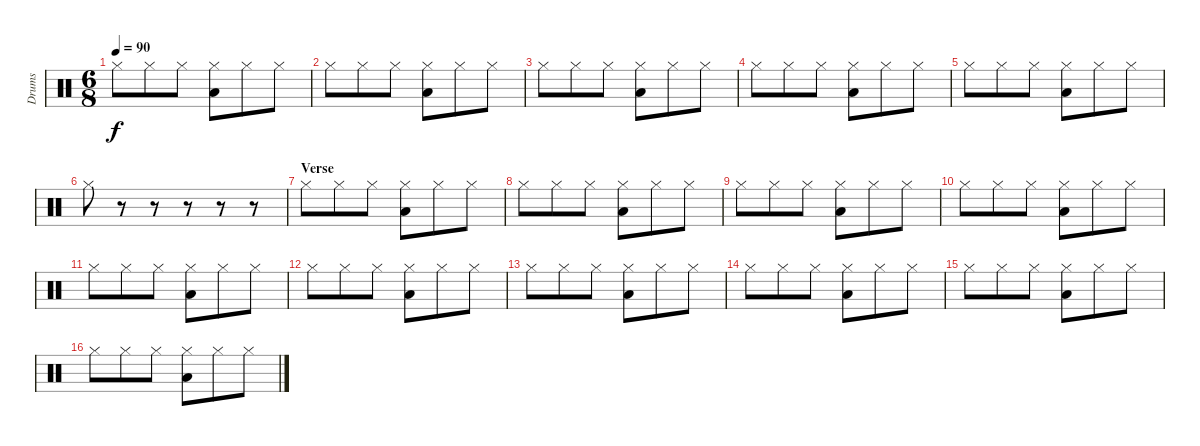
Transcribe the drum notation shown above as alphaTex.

\track ("Drums" "Drums") {instrument percussion}
\staff {score}
\articulation defaults
\ts (6 8)
\tempo 90
\clef neutral
\ks c "Hi-Hat (closed)".8{dy f} "Hi-Hat (closed)".8 "Hi-Hat (closed)".8
("Hi-Hat (closed)" "Low Floor Tom (hit)").8 "Hi-Hat (closed)".8 "Hi-Hat (closed)".8 |
"Hi-Hat (closed)".8 "Hi-Hat (closed)".8 "Hi-Hat (closed)".8 ("Hi-Hat (closed)" "Low Floor Tom (hit)").8 "Hi-Hat (closed)".8 "Hi-Hat (closed)".8 |
"Hi-Hat (closed)".8 "Hi-Hat (closed)".8 "Hi-Hat (closed)".8 ("Hi-Hat (closed)" "Low Floor Tom (hit)").8 "Hi-Hat (closed)".8 "Hi-Hat (closed)".8 |
"Hi-Hat (closed)".8 "Hi-Hat (closed)".8 "Hi-Hat (closed)".8 ("Hi-Hat (closed)" "Low Floor Tom (hit)").8 "Hi-Hat (closed)".8 "Hi-Hat (closed)".8 |
"Hi-Hat (closed)".8 "Hi-Hat (closed)".8 "Hi-Hat (closed)".8 ("Hi-Hat (closed)" "Low Floor Tom (hit)").8 "Hi-Hat (closed)".8 "Hi-Hat (closed)".8 |
"Hi-Hat (closed)".8 r.8 r.8 r.8 r.8 r.8 |
\section ("" "Verse")
"Hi-Hat (closed)".8 "Hi-Hat (closed)".8 "Hi-Hat (closed)".8 ("Hi-Hat (closed)" "Low Floor Tom (hit)").8 "Hi-Hat (closed)".8 "Hi-Hat (closed)".8 |
"Hi-Hat (closed)".8 "Hi-Hat (closed)".8 "Hi-Hat (closed)".8 ("Hi-Hat (closed)" "Low Floor Tom (hit)").8 "Hi-Hat (closed)".8 "Hi-Hat (closed)".8 |
"Hi-Hat (closed)".8 "Hi-Hat (closed)".8 "Hi-Hat (closed)".8 ("Hi-Hat (closed)" "Low Floor Tom (hit)").8 "Hi-Hat (closed)".8 "Hi-Hat (closed)".8 |
"Hi-Hat (closed)".8 "Hi-Hat (closed)".8 "Hi-Hat (closed)".8 ("Hi-Hat (closed)" "Low Floor Tom (hit)").8 "Hi-Hat (closed)".8 "Hi-Hat (closed)".8 |
"Hi-Hat (closed)".8 "Hi-Hat (closed)".8 "Hi-Hat (closed)".8 ("Hi-Hat (closed)" "Low Floor Tom (hit)").8 "Hi-Hat (closed)".8 "Hi-Hat (closed)".8 |
"Hi-Hat (closed)".8 "Hi-Hat (closed)".8 "Hi-Hat (closed)".8 ("Hi-Hat (closed)" "Low Floor Tom (hit)").8 "Hi-Hat (closed)".8 "Hi-Hat (closed)".8 |
"Hi-Hat (closed)".8 "Hi-Hat (closed)".8 "Hi-Hat (closed)".8 ("Hi-Hat (closed)" "Low Floor Tom (hit)").8 "Hi-Hat (closed)".8 "Hi-Hat (closed)".8 |
"Hi-Hat (closed)".8 "Hi-Hat (closed)".8 "Hi-Hat (closed)".8 ("Hi-Hat (closed)" "Low Floor Tom (hit)").8 "Hi-Hat (closed)".8 "Hi-Hat (closed)".8 |
"Hi-Hat (closed)".8 "Hi-Hat (closed)".8 "Hi-Hat (closed)".8 ("Hi-Hat (closed)" "Low Floor Tom (hit)").8 "Hi-Hat (closed)".8 "Hi-Hat (closed)".8 |
"Hi-Hat (closed)".8 "Hi-Hat (closed)".8 "Hi-Hat (closed)".8 ("Hi-Hat (closed)" "Low Floor Tom (hit)").8 "Hi-Hat (closed)".8 "Hi-Hat (closed)".8
